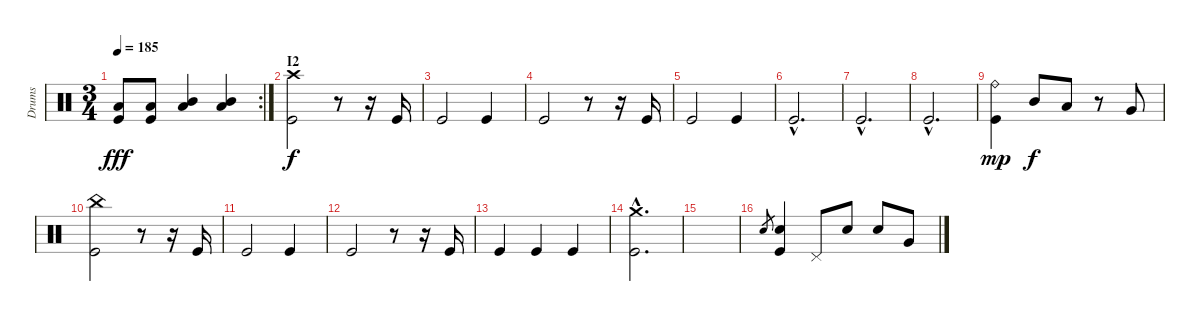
\track ("Drums" "Drums") {instrument percussion}
\staff {score}
\articulation defaults
\rc 2
\ts (3 4)
\tempo 185
\clef neutral
\ks c
("Low Floor Tom (hit)" "Kick (hit)").8{dy fff} ("Low Floor Tom (hit)" "Kick (hit)").8 ("Mid Tom (hit)" "Low Floor Tom (hit)").4 ("Mid Tom (hit)" "Low Floor Tom (hit)").4 |
\section ("" "I2")
("Crash high (hit)" "Kick (hit)").2{dy f} r.8 r.16 "Kick (hit)".16 |
"Kick (hit)".2 "Kick (hit)".4 |
"Kick (hit)".2 r.8 r.16 "Kick (hit)".16 |
"Kick (hit)".2 "Kick (hit)".4 |
"Kick (hit)"{hac}.2{d} |
"Kick (hit)"{hac}.2{d} |
"Kick (hit)"{hac}.2{d} |
("Ride (bell)" "Kick (hit)").4{dy mp} "Mid Tom (hit)".8{dy f} "Low Tom (hit)".8 r.8 "Very Low Tom (hit)".8 |
("China (hit)" "Kick (hit)").2 r.8 r.16 "Kick (hit)".16 |
"Kick (hit)".2 "Kick (hit)".4 |
"Kick (hit)".2 r.8 r.16 "Kick (hit)".16 |
"Kick (hit)".4 "Kick (hit)".4 "Kick (hit)".4 |
("Crash medium (hit)"{hac} "Kick (hit)"{hac}).2{d} |
|
"Snare (hit) 2".8{gr} ("Snare (hit) 2" "Kick (hit)").4 "Pedal Hi-Hat (hit)".8 "Snare (hit) 2".8 "Snare (hit) 2".8 "Very Low Tom (hit)".8
